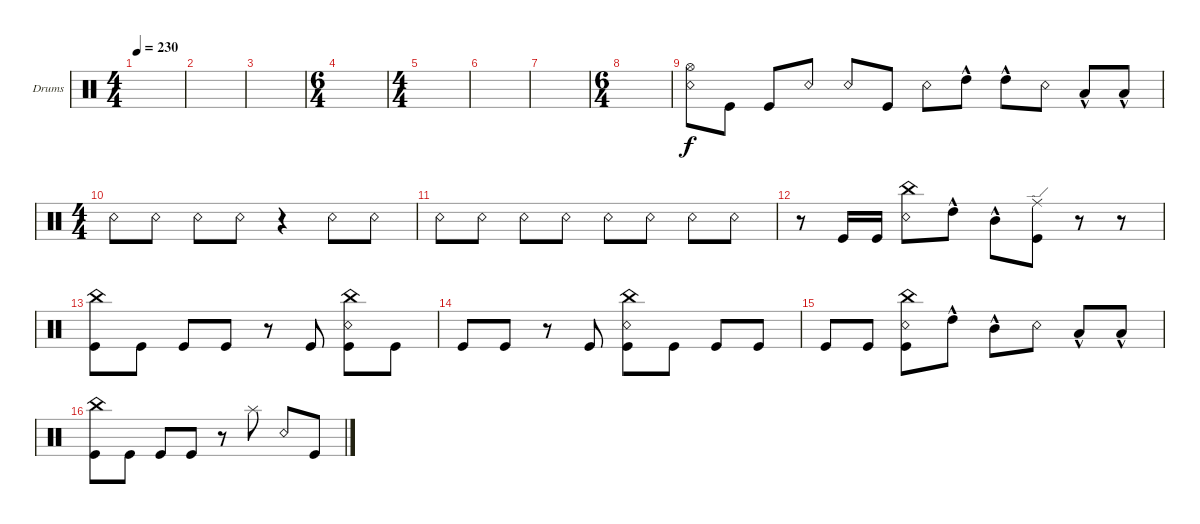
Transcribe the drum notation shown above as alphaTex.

\bracketExtendMode groupsimilarinstruments
\firstSystemTrackNameOrientation horizontal
\otherSystemsTrackNameOrientation horizontal
\track ("Drumkit" "Drums") {solo instrument percussion}
\staff {score}
\articulation defaults
\ts (4 4)
\tempo 230
\clef neutral
\ks c
|
|
|
\ts (6 4)
|
\ts (4 4)
|
|
|
\ts (6 4)
|
("Snare (rim shot)" "Hi-Hat (open)").8 "Kick (hit)".8 "Kick (hit)".8 "Snare (rim shot)".8 "Snare (rim shot)".8 "Kick (hit)".8 "Snare (rim shot)".8 "High Tom (hit)"{hac}.8 "High Tom (hit)"{hac}.8 "Snare (rim shot)".8 "Low Tom (hit)"{hac}.8 "Low Tom (hit)"{hac}.8 |
\ts (4 4)
"Snare (rim shot)".8 "Snare (rim shot)".8 "Snare (rim shot)".8 "Snare (rim shot)".8 r.4 "Snare (rim shot)".8 "Snare (rim shot)".8 |
"Snare (rim shot)".8 "Snare (rim shot)".8 "Snare (rim shot)".8 "Snare (rim shot)".8 "Snare (rim shot)".8 "Snare (rim shot)".8 "Snare (rim shot)".8 "Snare (rim shot)".8 |
r.8 "Kick (hit)".16 "Kick (hit)".16 ("Snare (rim shot)" "China (hit)").8 "High Tom (hit)"{hac}.8 "Mid Tom (hit)"{hac}.8 ("Kick (hit)" "Ride (edge)").8 r.8 r.8 |
("Kick (hit)" "China (hit)").8 "Kick (hit)".8 "Kick (hit)".8 "Kick (hit)".8 r.8 "Kick (hit)".8 ("Kick (hit)" "Snare (rim shot)" "China (hit)").8 "Kick (hit)".8 |
"Kick (hit)".8 "Kick (hit)".8 r.8 "Kick (hit)".8 ("Kick (hit)" "China (hit)" "Snare (rim shot)").8 "Kick (hit)".8 "Kick (hit)".8 "Kick (hit)".8 |
"Kick (hit)".8 "Kick (hit)".8 ("Kick (hit)" "Snare (rim shot)" "China (hit)").8 "High Tom (hit)"{hac}.8 "Mid Tom (hit)"{hac}.8 "Snare (rim shot)".8 "Low Tom (hit)"{hac}.8 "Low Tom (hit)"{hac}.8 |
("Kick (hit)" "China (hit)").8 "Kick (hit)".8 "Kick (hit)".8 "Kick (hit)".8 r.8 "Splash (hit)".8 "Snare (rim shot)".8 "Kick (hit)".8
